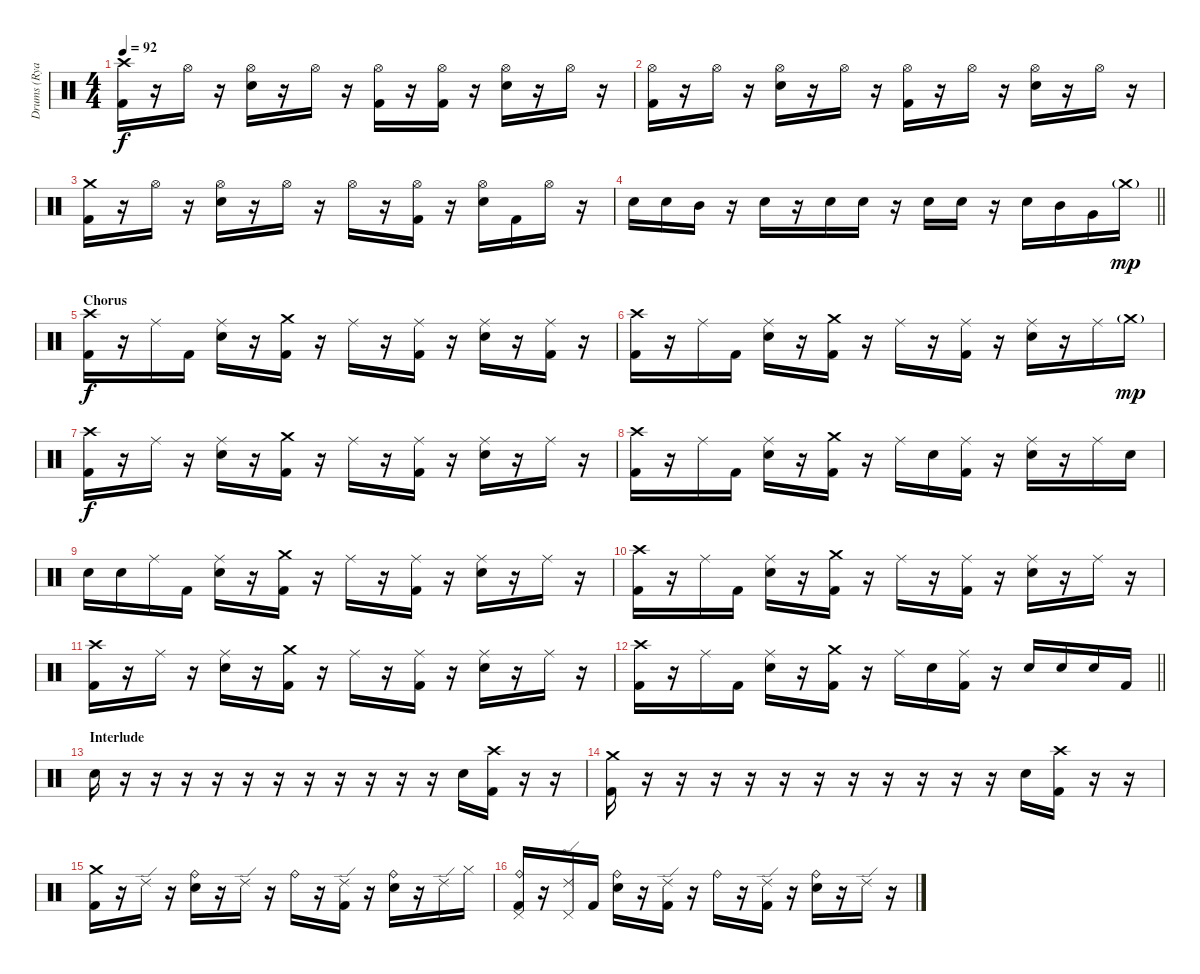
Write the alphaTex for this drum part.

\track ("Drums (Ryan Vikedal)" "Drums (Rya") {instrument percussion}
\staff {score}
\articulation defaults
\ts (4 4)
\tempo 92
\clef neutral
\ks c
("Crash high (hit)" "Kick (hit) 2").16{dy f} r.16 "Hi-Hat (open)".16 r.16 ("Hi-Hat (open)" "Snare (hit) 2").16 r.16 "Hi-Hat (open)".16 r.16 ("Hi-Hat (open)" "Kick (hit) 2").16 r.16 ("Hi-Hat (open)" "Kick (hit) 2").16 r.16 ("Hi-Hat (open)" "Snare (hit) 2").16 r.16 "Hi-Hat (open)".16 r.16 |
("Hi-Hat (open)" "Kick (hit) 2").16 r.16 "Hi-Hat (open)".16 r.16 ("Hi-Hat (open)" "Snare (hit) 2").16 r.16 "Hi-Hat (open)".16 r.16 ("Hi-Hat (open)" "Kick (hit) 2").16 r.16 "Hi-Hat (open)".16 r.16 ("Hi-Hat (open)" "Snare (hit) 2").16 r.16 "Hi-Hat (open)".16 r.16 |
("Crash medium (hit)" "Kick (hit) 2").16 r.16 "Hi-Hat (open)".16 r.16 ("Hi-Hat (open)" "Snare (hit) 2").16 r.16 "Hi-Hat (open)".16 r.16 "Hi-Hat (open)".16 r.16 ("Hi-Hat (open)" "Kick (hit) 2").16 r.16 ("Hi-Hat (open)" "Snare (hit) 2").16 "Kick (hit) 2".16 "Hi-Hat (open)".16 r.16 |
\barLineRight lightlight "Snare (hit) 2".16 "Snare (hit) 2".16 "Mid Tom (hit)".16
r.16 "Snare (hit) 2".16 r.16 "Snare (hit) 2".16 "Snare (hit) 2".16 r.16 "Snare (hit) 2".16 "Snare (hit) 2".16 r.16 "Snare (hit) 2".16 "Mid Tom (hit)".16 "Very Low Tom (hit)".16 "Crash medium (hit)"{g}.16{dy mp} |
\section ("" "Chorus")
("Crash high (hit)" "Kick (hit) 2").16{dy f} r.16 "Ride (middle)".16 "Kick (hit) 2".16 ("Ride (middle)" "Snare (hit) 2").16 r.16 ("Crash medium (hit)" "Kick (hit) 2").16 r.16 "Ride (middle)".16 r.16 ("Ride (middle)" "Kick (hit) 2").16 r.16 ("Ride (middle)" "Snare (hit) 2").16 r.16 ("Ride (middle)" "Kick (hit) 2").16 r.16 |
("Crash high (hit)" "Kick (hit) 2").16 r.16 "Ride (middle)".16 "Kick (hit) 2".16 ("Ride (middle)" "Snare (hit) 2").16 r.16 ("Crash medium (hit)" "Kick (hit) 2").16 r.16 "Ride (middle)".16 r.16 ("Ride (middle)" "Kick (hit) 2").16 r.16 ("Ride (middle)" "Snare (hit) 2").16 r.16 "Ride (middle)".16 "Crash medium (hit)"{g}.16{dy mp} |
("Crash high (hit)" "Kick (hit) 2").16{dy f} r.16 "Ride (middle)".16 r.16 ("Ride (middle)" "Snare (hit) 2").16 r.16 ("Crash medium (hit)" "Kick (hit) 2").16 r.16 "Ride (middle)".16 r.16 ("Ride (middle)" "Kick (hit) 2").16 r.16 ("Ride (middle)" "Snare (hit) 2").16 r.16 "Ride (middle)".16 r.16 |
("Crash high (hit)" "Kick (hit) 2").16 r.16 "Ride (middle)".16 "Kick (hit) 2".16 ("Ride (middle)" "Snare (hit) 2").16 r.16 ("Crash medium (hit)" "Kick (hit) 2").16 r.16 "Ride (middle)".16 "Snare (hit) 2".16 ("Ride (middle)" "Kick (hit) 2").16 r.16 ("Ride (middle)" "Snare (hit) 2").16 r.16 "Ride (middle)".16 "Snare (hit) 2".16 |
"Snare (hit) 2".16 "Snare (hit) 2".16 "Ride (middle)".16 "Kick (hit) 2".16 ("Ride (middle)" "Snare (hit) 2").16 r.16 ("Crash medium (hit)" "Kick (hit) 2").16 r.16 "Ride (middle)".16 r.16 ("Ride (middle)" "Kick (hit) 2").16 r.16 ("Ride (middle)" "Snare (hit) 2").16 r.16 "Ride (middle)".16 r.16 |
("Crash high (hit)" "Kick (hit) 2").16 r.16 "Ride (middle)".16 "Kick (hit) 2".16 ("Ride (middle)" "Snare (hit) 2").16 r.16 ("Crash medium (hit)" "Kick (hit) 2").16 r.16 "Ride (middle)".16 r.16 ("Ride (middle)" "Kick (hit) 2").16 r.16 ("Ride (middle)" "Snare (hit) 2").16 r.16 "Ride (middle)".16 r.16 |
("Crash high (hit)" "Kick (hit) 2").16 r.16 "Ride (middle)".16 r.16 ("Ride (middle)" "Snare (hit) 2").16 r.16 ("Crash medium (hit)" "Kick (hit) 2").16 r.16 "Ride (middle)".16 r.16 ("Ride (middle)" "Kick (hit) 2").16 r.16 ("Ride (middle)" "Snare (hit) 2").16 r.16 "Ride (middle)".16 r.16 |
\barLineRight lightlight
("Crash high (hit)" "Kick (hit) 2").16 r.16 "Ride (middle)".16 "Kick (hit) 2".16 ("Ride (middle)" "Snare (hit) 2").16 r.16 ("Crash medium (hit)" "Kick (hit) 2").16 r.16 "Ride (middle)".16 "Snare (hit) 2".16 ("Ride (middle)" "Kick (hit) 2").16 r.16 "Snare (hit) 2".16 "Snare (hit) 2".16 "Snare (hit) 2".16 "Kick (hit) 2".16 |
\section ("" "Interlude")
"Snare (hit) 2".16 r.16 r.16 r.16 r.16 r.16 r.16 r.16 r.16 r.16 r.16 r.16 "Snare (hit) 2".16 ("Crash high (hit)" "Kick (hit) 2").16 r.16 r.16 |
("Crash medium (hit)" "Kick (hit) 2").16 r.16 r.16 r.16 r.16 r.16 r.16 r.16 r.16 r.16 r.16 r.16 "Snare (hit) 2".16 ("Crash high (hit)" "Kick (hit) 2").16 r.16 r.16 |
("Crash medium (hit)" "Kick (hit) 2").16 r.16 "Ride (edge) 2".16 r.16 ("Ride (bell)" "Snare (hit) 2").16 r.16 "Ride (edge) 2".16 r.16 "Ride (bell)".16 r.16 ("Ride (edge) 2" "Kick (hit) 2").16 r.16 ("Ride (bell)" "Snare (hit) 2").16 r.16 "Ride (edge) 2".16 "Hi-Hat (closed)".16 |
("Ride (bell)" "Kick (hit) 2" "Pedal Hi-Hat (hit)").16 r.16 ("Ride (edge) 2" "Pedal Hi-Hat (hit)").16 "Kick (hit) 2".16 ("Ride (bell)" "Snare (hit) 2").16 r.16 ("Ride (edge) 2" "Kick (hit) 2").16 r.16 "Ride (bell)".16 r.16 ("Ride (edge) 2" "Kick (hit) 2").16 r.16 ("Ride (bell)" "Snare (hit) 2").16 r.16 "Ride (edge) 2".16 r.16
